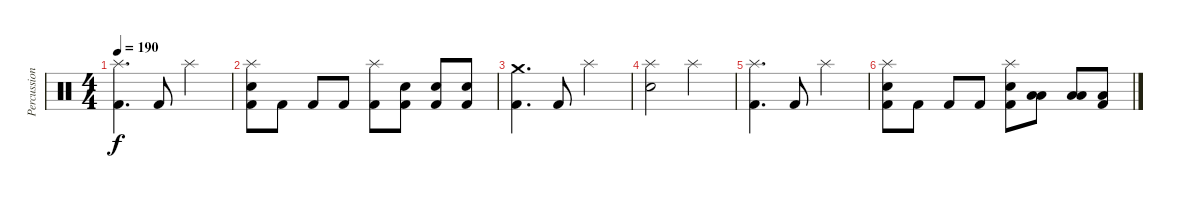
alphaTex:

\track ("Percussions" "Percussion") {instrument percussion}
\staff {score}
\articulation defaults
\ts (4 4)
\tempo 190
\clef neutral
\ks c
("Splash (hit)" "Kick (hit) 2").4{d dy f} "Kick (hit) 2".8 "Splash (hit)".2 |
("Splash (hit)" "Electric Snare (hit)" "Kick (hit) 2").8 "Kick (hit) 2".8 "Kick (hit) 2".8 "Kick (hit) 2".8 ("Splash (hit)" "Kick (hit) 2").8 ("Electric Snare (hit)" "Kick (hit) 2").8 ("Electric Snare (hit)" "Kick (hit) 2").8 ("Electric Snare (hit)" "Kick (hit) 2").8 |
("Crash medium (hit)" "Kick (hit) 2").4{d} "Kick (hit) 2".8 "Splash (hit)".2 |
("Splash (hit)" "Electric Snare (hit)").2 "Splash (hit)".2 |
("Splash (hit)" "Kick (hit) 2").4{d} "Kick (hit) 2".8 "Splash (hit)".2 |
("Splash (hit)" "Electric Snare (hit)" "Kick (hit) 2").8 "Kick (hit) 2".8 "Kick (hit) 2".8 "Kick (hit) 2".8 ("Splash (hit)" "Electric Snare (hit)" "Kick (hit) 2").8 ("Low Tom (hit)" "Low Floor Tom (hit)").8 ("Low Tom (hit)" "Low Floor Tom (hit)").8 ("Low Floor Tom (hit)" "Kick (hit) 2").8
